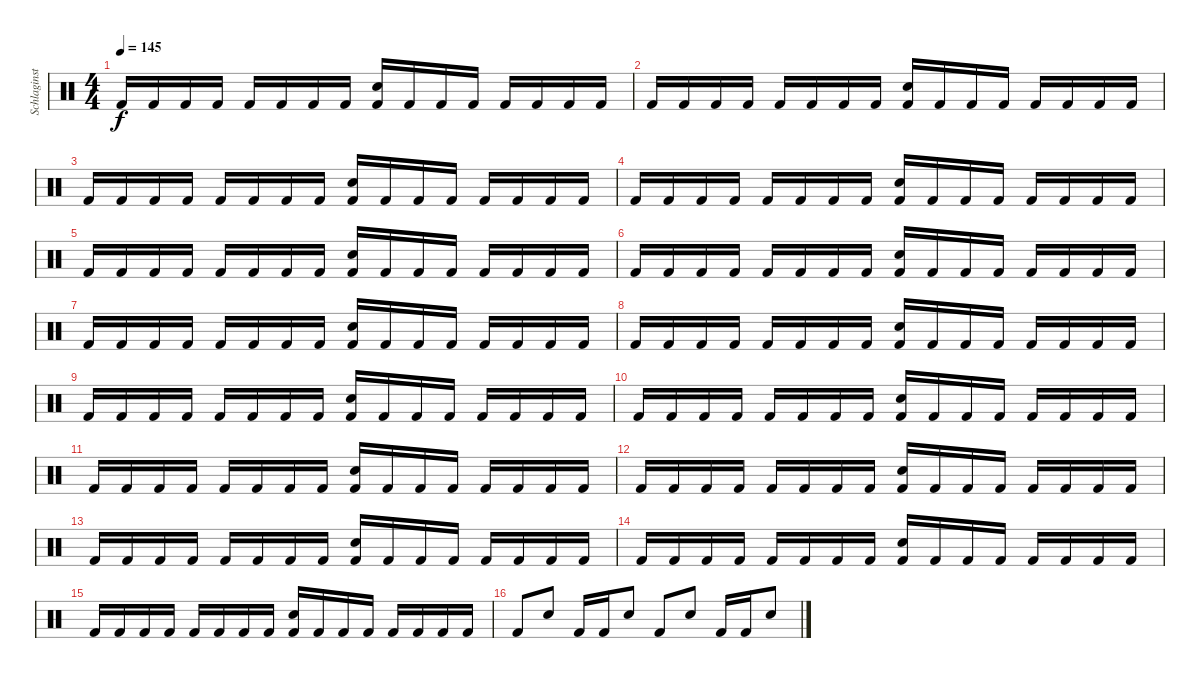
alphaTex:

\track ("Schlaginstrumente - Auswahl" "Schlaginst") {instrument percussion}
\staff {score}
\articulation defaults
\ts (4 4)
\tempo 145
\clef neutral
\ks c "Kick (hit) 2".16{dy f} "Kick (hit) 2".16 "Kick (hit) 2".16 "Kick (hit) 2".16 "Kick (hit) 2".16 "Kick (hit) 2".16 "Kick (hit) 2".16 "Kick (hit) 2".16
("Snare (hit) 2" "Kick (hit) 2").16 "Kick (hit) 2".16 "Kick (hit) 2".16 "Kick (hit) 2".16 "Kick (hit) 2".16 "Kick (hit) 2".16 "Kick (hit) 2".16 "Kick (hit) 2".16 |
"Kick (hit) 2".16 "Kick (hit) 2".16 "Kick (hit) 2".16 "Kick (hit) 2".16 "Kick (hit) 2".16 "Kick (hit) 2".16 "Kick (hit) 2".16 "Kick (hit) 2".16 ("Snare (hit) 2" "Kick (hit) 2").16 "Kick (hit) 2".16 "Kick (hit) 2".16 "Kick (hit) 2".16 "Kick (hit) 2".16 "Kick (hit) 2".16 "Kick (hit) 2".16 "Kick (hit) 2".16 |
"Kick (hit) 2".16 "Kick (hit) 2".16 "Kick (hit) 2".16 "Kick (hit) 2".16 "Kick (hit) 2".16 "Kick (hit) 2".16 "Kick (hit) 2".16 "Kick (hit) 2".16 ("Snare (hit) 2" "Kick (hit) 2").16 "Kick (hit) 2".16 "Kick (hit) 2".16 "Kick (hit) 2".16 "Kick (hit) 2".16 "Kick (hit) 2".16 "Kick (hit) 2".16 "Kick (hit) 2".16 |
"Kick (hit) 2".16 "Kick (hit) 2".16 "Kick (hit) 2".16 "Kick (hit) 2".16 "Kick (hit) 2".16 "Kick (hit) 2".16 "Kick (hit) 2".16 "Kick (hit) 2".16 ("Snare (hit) 2" "Kick (hit) 2").16 "Kick (hit) 2".16 "Kick (hit) 2".16 "Kick (hit) 2".16 "Kick (hit) 2".16 "Kick (hit) 2".16 "Kick (hit) 2".16 "Kick (hit) 2".16 |
"Kick (hit) 2".16 "Kick (hit) 2".16 "Kick (hit) 2".16 "Kick (hit) 2".16 "Kick (hit) 2".16 "Kick (hit) 2".16 "Kick (hit) 2".16 "Kick (hit) 2".16 ("Snare (hit) 2" "Kick (hit) 2").16 "Kick (hit) 2".16 "Kick (hit) 2".16 "Kick (hit) 2".16 "Kick (hit) 2".16 "Kick (hit) 2".16 "Kick (hit) 2".16 "Kick (hit) 2".16 |
"Kick (hit) 2".16 "Kick (hit) 2".16 "Kick (hit) 2".16 "Kick (hit) 2".16 "Kick (hit) 2".16 "Kick (hit) 2".16 "Kick (hit) 2".16 "Kick (hit) 2".16 ("Snare (hit) 2" "Kick (hit) 2").16 "Kick (hit) 2".16 "Kick (hit) 2".16 "Kick (hit) 2".16 "Kick (hit) 2".16 "Kick (hit) 2".16 "Kick (hit) 2".16 "Kick (hit) 2".16 |
"Kick (hit) 2".16 "Kick (hit) 2".16 "Kick (hit) 2".16 "Kick (hit) 2".16 "Kick (hit) 2".16 "Kick (hit) 2".16 "Kick (hit) 2".16 "Kick (hit) 2".16 ("Snare (hit) 2" "Kick (hit) 2").16 "Kick (hit) 2".16 "Kick (hit) 2".16 "Kick (hit) 2".16 "Kick (hit) 2".16 "Kick (hit) 2".16 "Kick (hit) 2".16 "Kick (hit) 2".16 |
"Kick (hit) 2".16 "Kick (hit) 2".16 "Kick (hit) 2".16 "Kick (hit) 2".16 "Kick (hit) 2".16 "Kick (hit) 2".16 "Kick (hit) 2".16 "Kick (hit) 2".16 ("Snare (hit) 2" "Kick (hit) 2").16 "Kick (hit) 2".16 "Kick (hit) 2".16 "Kick (hit) 2".16 "Kick (hit) 2".16 "Kick (hit) 2".16 "Kick (hit) 2".16 "Kick (hit) 2".16 |
"Kick (hit) 2".16 "Kick (hit) 2".16 "Kick (hit) 2".16 "Kick (hit) 2".16 "Kick (hit) 2".16 "Kick (hit) 2".16 "Kick (hit) 2".16 "Kick (hit) 2".16 ("Snare (hit) 2" "Kick (hit) 2").16 "Kick (hit) 2".16 "Kick (hit) 2".16 "Kick (hit) 2".16 "Kick (hit) 2".16 "Kick (hit) 2".16 "Kick (hit) 2".16 "Kick (hit) 2".16 |
"Kick (hit) 2".16 "Kick (hit) 2".16 "Kick (hit) 2".16 "Kick (hit) 2".16 "Kick (hit) 2".16 "Kick (hit) 2".16 "Kick (hit) 2".16 "Kick (hit) 2".16 ("Snare (hit) 2" "Kick (hit) 2").16 "Kick (hit) 2".16 "Kick (hit) 2".16 "Kick (hit) 2".16 "Kick (hit) 2".16 "Kick (hit) 2".16 "Kick (hit) 2".16 "Kick (hit) 2".16 |
"Kick (hit) 2".16 "Kick (hit) 2".16 "Kick (hit) 2".16 "Kick (hit) 2".16 "Kick (hit) 2".16 "Kick (hit) 2".16 "Kick (hit) 2".16 "Kick (hit) 2".16 ("Snare (hit) 2" "Kick (hit) 2").16 "Kick (hit) 2".16 "Kick (hit) 2".16 "Kick (hit) 2".16 "Kick (hit) 2".16 "Kick (hit) 2".16 "Kick (hit) 2".16 "Kick (hit) 2".16 |
"Kick (hit) 2".16 "Kick (hit) 2".16 "Kick (hit) 2".16 "Kick (hit) 2".16 "Kick (hit) 2".16 "Kick (hit) 2".16 "Kick (hit) 2".16 "Kick (hit) 2".16 ("Snare (hit) 2" "Kick (hit) 2").16 "Kick (hit) 2".16 "Kick (hit) 2".16 "Kick (hit) 2".16 "Kick (hit) 2".16 "Kick (hit) 2".16 "Kick (hit) 2".16 "Kick (hit) 2".16 |
"Kick (hit) 2".16 "Kick (hit) 2".16 "Kick (hit) 2".16 "Kick (hit) 2".16 "Kick (hit) 2".16 "Kick (hit) 2".16 "Kick (hit) 2".16 "Kick (hit) 2".16 ("Snare (hit) 2" "Kick (hit) 2").16 "Kick (hit) 2".16 "Kick (hit) 2".16 "Kick (hit) 2".16 "Kick (hit) 2".16 "Kick (hit) 2".16 "Kick (hit) 2".16 "Kick (hit) 2".16 |
"Kick (hit) 2".16 "Kick (hit) 2".16 "Kick (hit) 2".16 "Kick (hit) 2".16 "Kick (hit) 2".16 "Kick (hit) 2".16 "Kick (hit) 2".16 "Kick (hit) 2".16 ("Snare (hit) 2" "Kick (hit) 2").16 "Kick (hit) 2".16 "Kick (hit) 2".16 "Kick (hit) 2".16 "Kick (hit) 2".16 "Kick (hit) 2".16 "Kick (hit) 2".16 "Kick (hit) 2".16 |
"Kick (hit) 2".16 "Kick (hit) 2".16 "Kick (hit) 2".16 "Kick (hit) 2".16 "Kick (hit) 2".16 "Kick (hit) 2".16 "Kick (hit) 2".16 "Kick (hit) 2".16 ("Snare (hit) 2" "Kick (hit) 2").16 "Kick (hit) 2".16 "Kick (hit) 2".16 "Kick (hit) 2".16 "Kick (hit) 2".16 "Kick (hit) 2".16 "Kick (hit) 2".16 "Kick (hit) 2".16 |
"Kick (hit) 2".8 "Snare (hit) 2".8 "Kick (hit) 2".16 "Kick (hit) 2".16 "Snare (hit) 2".8 "Kick (hit) 2".8 "Snare (hit) 2".8 "Kick (hit) 2".16 "Kick (hit) 2".16 "Snare (hit) 2".8
